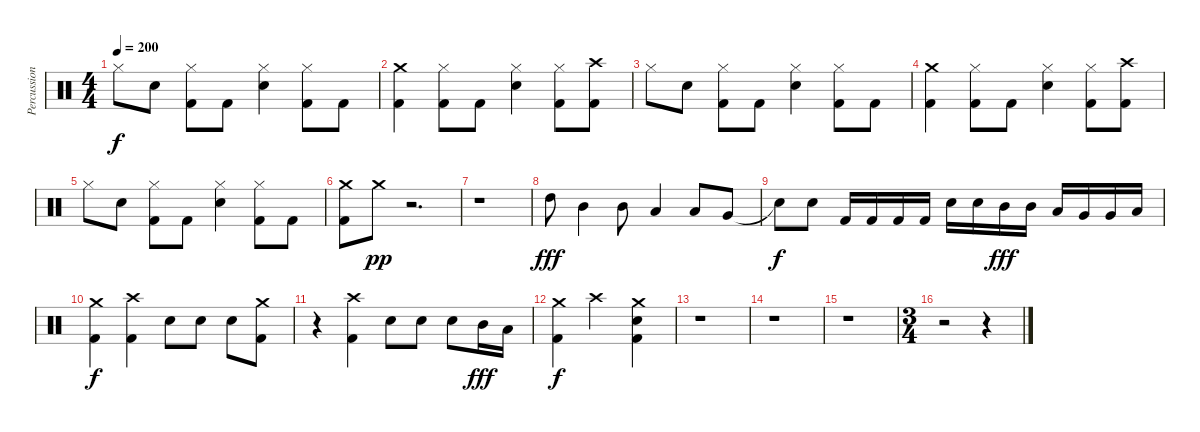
\track ("Percussions" "Percussion") {instrument percussion}
\staff {score}
\articulation defaults
\ts (4 4)
\tempo 200
\clef neutral
\ks c "Hi-Hat (closed)".8{dy f} "Electric Snare (hit)".8
("Hi-Hat (closed)" "Kick (hit) 2").8 "Kick (hit) 2".8 ("Hi-Hat (closed)" "Electric Snare (hit)").4 ("Hi-Hat (closed)" "Kick (hit) 2").8 "Kick (hit) 2".8 |
("Crash medium (hit)" "Kick (hit) 2").4 ("Hi-Hat (closed)" "Kick (hit) 2").8 "Kick (hit) 2".8 ("Hi-Hat (closed)" "Electric Snare (hit)").4 ("Hi-Hat (closed)" "Kick (hit) 2").8 ("Crash high (hit)" "Kick (hit) 2").8 |
"Hi-Hat (closed)".8 "Electric Snare (hit)".8 ("Hi-Hat (closed)" "Kick (hit) 2").8 "Kick (hit) 2".8 ("Hi-Hat (closed)" "Electric Snare (hit)").4 ("Hi-Hat (closed)" "Kick (hit) 2").8 "Kick (hit) 2".8 |
("Crash medium (hit)" "Kick (hit) 2").4 ("Hi-Hat (closed)" "Kick (hit) 2").8 "Kick (hit) 2".8 ("Hi-Hat (closed)" "Electric Snare (hit)").4 ("Hi-Hat (closed)" "Kick (hit) 2").8 ("Crash high (hit)" "Kick (hit) 2").8 |
"Hi-Hat (closed)".8 "Electric Snare (hit)".8 ("Hi-Hat (closed)" "Kick (hit) 2").8 "Kick (hit) 2".8 ("Hi-Hat (closed)" "Electric Snare (hit)").4 ("Hi-Hat (closed)" "Kick (hit) 2").8 "Kick (hit) 2".8 |
("Crash medium (hit)" "Kick (hit) 2").8 "Crash medium (hit)".8{dy pp} r.2{d} |
r.1 |
"High Tom (hit)".8{dy fff} "Mid Tom (hit)".4 "Mid Tom (hit)".8 "Low Tom (hit)".4 "Low Tom (hit)".8 "Very Low Tom (hit)".8 |
"Snare (hit)"{t}.8{dy f} "Electric Snare (hit)".8 "Kick (hit) 2".16 "Kick (hit) 2".16 "Kick (hit) 2".16 "Kick (hit) 2".16 "Electric Snare (hit)".16 "Electric Snare (hit)".16 "Mid Tom (hit)".16{dy fff} "Mid Tom (hit)".16 "Low Tom (hit)".16 "Very Low Tom (hit)".16 "Very Low Tom (hit)".16 "Low Floor Tom (hit)".16 |
("Crash medium (hit)" "Kick (hit) 2").4{dy f} ("Crash high (hit)" "Kick (hit) 2").4 "Electric Snare (hit)".8 "Electric Snare (hit)".8 "Electric Snare (hit)".8 ("Crash medium (hit)" "Kick (hit) 2").8 |
r.4 ("Crash high (hit)" "Kick (hit) 2").4 "Electric Snare (hit)".8 "Electric Snare (hit)".8 "Electric Snare (hit)".8 "Mid Tom (hit)".16{dy fff} "Low Tom (hit)".16 |
("Crash medium (hit)" "Kick (hit) 2").4{dy f} "Crash high (hit)".2 ("Crash medium (hit)" "Electric Snare (hit)" "Kick (hit) 2").4 |
r.1 |
r.1 |
r.1 |
\ts (3 4)
r.2 r.4
